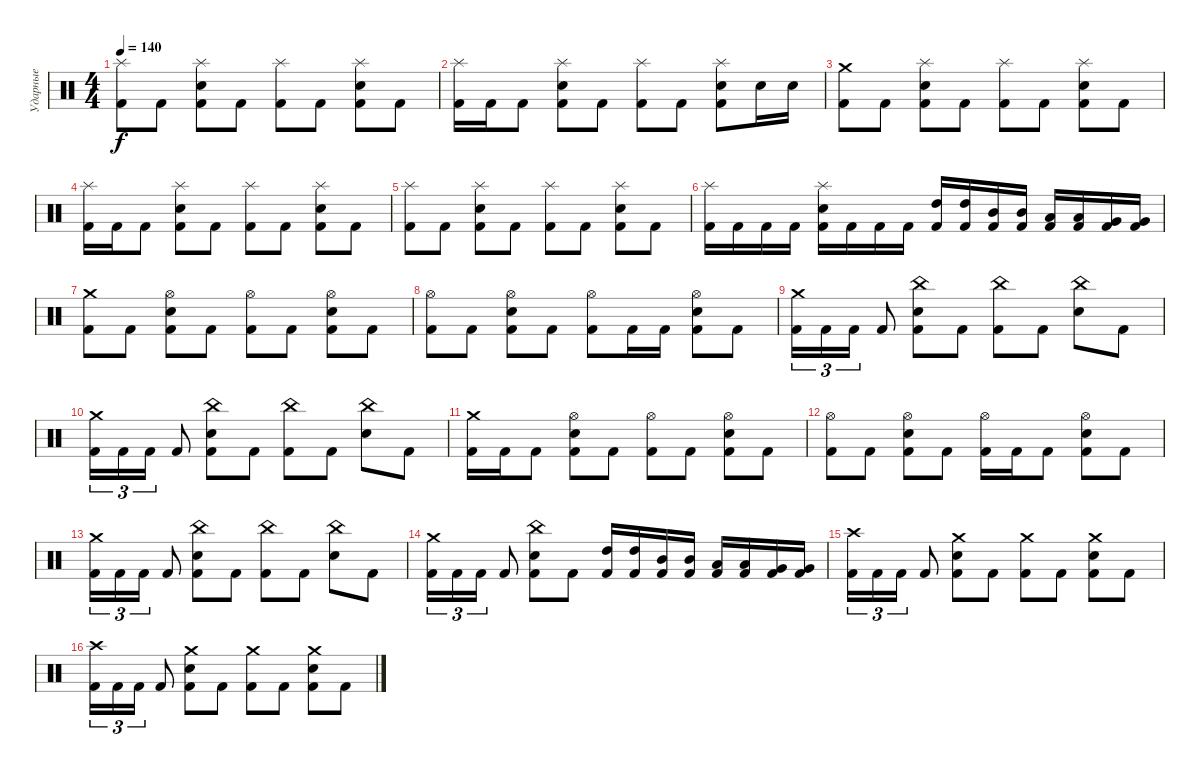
\track ("Ударные" "Ударные") {instrument percussion}
\staff {score}
\articulation defaults
\ts (4 4)
\tempo 140
\clef neutral
\ks c
("Splash (hit)" "Kick (hit) 2").8{dy f} "Kick (hit) 2".8 ("Splash (hit)" "Electric Snare (hit)" "Kick (hit) 2").8 "Kick (hit) 2".8 ("Splash (hit)" "Kick (hit) 2").8 "Kick (hit) 2".8 ("Splash (hit)" "Electric Snare (hit)" "Kick (hit) 2").8 "Kick (hit) 2".8 |
("Splash (hit)" "Kick (hit) 2").16 "Kick (hit) 2".16 "Kick (hit) 2".8 ("Splash (hit)" "Electric Snare (hit)" "Kick (hit) 2").8 "Kick (hit) 2".8 ("Splash (hit)" "Kick (hit) 2").8 "Kick (hit) 2".8 ("Splash (hit)" "Electric Snare (hit)" "Kick (hit) 2").8 "Electric Snare (hit)".16 "Electric Snare (hit)".16 |
("Crash medium (hit)" "Kick (hit) 2").8 "Kick (hit) 2".8 ("Splash (hit)" "Electric Snare (hit)" "Kick (hit) 2").8 "Kick (hit) 2".8 ("Splash (hit)" "Kick (hit) 2").8 "Kick (hit) 2".8 ("Splash (hit)" "Electric Snare (hit)" "Kick (hit) 2").8 "Kick (hit) 2".8 |
("Splash (hit)" "Kick (hit) 2").16 "Kick (hit) 2".16 "Kick (hit) 2".8 ("Splash (hit)" "Electric Snare (hit)" "Kick (hit) 2").8 "Kick (hit) 2".8 ("Splash (hit)" "Kick (hit) 2").8 "Kick (hit) 2".8 ("Splash (hit)" "Electric Snare (hit)" "Kick (hit) 2").8 "Kick (hit) 2".8 |
("Splash (hit)" "Kick (hit) 2").8 "Kick (hit) 2".8 ("Splash (hit)" "Electric Snare (hit)" "Kick (hit) 2").8 "Kick (hit) 2".8 ("Splash (hit)" "Kick (hit) 2").8 "Kick (hit) 2".8 ("Splash (hit)" "Electric Snare (hit)" "Kick (hit) 2").8 "Kick (hit) 2".8 |
("Splash (hit)" "Kick (hit) 2").16 "Kick (hit) 2".16 "Kick (hit) 2".16 "Kick (hit) 2".16 ("Splash (hit)" "Electric Snare (hit)" "Kick (hit) 2").16 "Kick (hit) 2".16 "Kick (hit) 2".16 "Kick (hit) 2".16 ("High Tom (hit)" "Kick (hit) 2").16 ("High Tom (hit)" "Kick (hit) 2").16 ("Mid Tom (hit)" "Kick (hit) 2").16 ("Mid Tom (hit)" "Kick (hit) 2").16 ("Low Tom (hit)" "Kick (hit) 2").16 ("Low Tom (hit)" "Kick (hit) 2").16 ("Very Low Tom (hit)" "Kick (hit) 2").16 ("Very Low Tom (hit)" "Kick (hit) 2").16 |
("Crash medium (hit)" "Kick (hit) 2").8 "Kick (hit) 2".8 ("Hi-Hat (open)" "Electric Snare (hit)" "Kick (hit) 2").8 "Kick (hit) 2".8 ("Hi-Hat (open)" "Kick (hit) 2").8 "Kick (hit) 2".8 ("Hi-Hat (open)" "Electric Snare (hit)" "Kick (hit) 2").8 "Kick (hit) 2".8 |
("Hi-Hat (open)" "Kick (hit) 2").8 "Kick (hit) 2".8 ("Hi-Hat (open)" "Electric Snare (hit)" "Kick (hit) 2").8 "Kick (hit) 2".8 ("Hi-Hat (open)" "Kick (hit) 2").8 "Kick (hit) 2".16 "Kick (hit) 2".16 ("Hi-Hat (open)" "Electric Snare (hit)" "Kick (hit) 2").8 "Kick (hit) 2".8 |
("Crash medium (hit)" "Kick (hit) 2").16{tu (3 2)} "Kick (hit) 2".16{tu (3 2)} "Kick (hit) 2".16{tu (3 2)} "Kick (hit) 2".8 ("China (hit)" "Electric Snare (hit)" "Kick (hit) 2").8 "Kick (hit) 2".8 ("China (hit)" "Kick (hit) 2").8 "Kick (hit) 2".8 ("China (hit)" "Electric Snare (hit)").8 "Kick (hit) 2".8 |
("Crash medium (hit)" "Kick (hit) 2").16{tu (3 2)} "Kick (hit) 2".16{tu (3 2)} "Kick (hit) 2".16{tu (3 2)} "Kick (hit) 2".8 ("China (hit)" "Electric Snare (hit)" "Kick (hit) 2").8 "Kick (hit) 2".8 ("China (hit)" "Kick (hit) 2").8 "Kick (hit) 2".8 ("China (hit)" "Electric Snare (hit)").8 "Kick (hit) 2".8 |
("Crash medium (hit)" "Kick (hit) 2").16 "Kick (hit) 2".16 "Kick (hit) 2".8 ("Hi-Hat (open)" "Electric Snare (hit)" "Kick (hit) 2").8 "Kick (hit) 2".8 ("Hi-Hat (open)" "Kick (hit) 2").8 "Kick (hit) 2".8 ("Hi-Hat (open)" "Electric Snare (hit)" "Kick (hit) 2").8 "Kick (hit) 2".8 |
("Hi-Hat (open)" "Kick (hit) 2").8 "Kick (hit) 2".8 ("Hi-Hat (open)" "Electric Snare (hit)" "Kick (hit) 2").8 "Kick (hit) 2".8 ("Hi-Hat (open)" "Kick (hit) 2").16 "Kick (hit) 2".16 "Kick (hit) 2".8 ("Hi-Hat (open)" "Electric Snare (hit)" "Kick (hit) 2").8 "Kick (hit) 2".8 |
("Crash medium (hit)" "Kick (hit) 2").16{tu (3 2)} "Kick (hit) 2".16{tu (3 2)} "Kick (hit) 2".16{tu (3 2)} "Kick (hit) 2".8 ("China (hit)" "Electric Snare (hit)" "Kick (hit) 2").8 "Kick (hit) 2".8 ("China (hit)" "Kick (hit) 2").8 "Kick (hit) 2".8 ("China (hit)" "Electric Snare (hit)").8 "Kick (hit) 2".8 |
("Crash medium (hit)" "Kick (hit) 2").16{tu (3 2)} "Kick (hit) 2".16{tu (3 2)} "Kick (hit) 2".16{tu (3 2)} "Kick (hit) 2".8 ("China (hit)" "Electric Snare (hit)" "Kick (hit) 2").8 "Kick (hit) 2".8 ("High Tom (hit)" "Kick (hit) 2").16 ("High Tom (hit)" "Kick (hit) 2").16 ("Mid Tom (hit)" "Kick (hit) 2").16 ("Mid Tom (hit)" "Kick (hit) 2").16 ("Low Tom (hit)" "Kick (hit) 2").16 ("Low Tom (hit)" "Kick (hit) 2").16 ("Very Low Tom (hit)" "Kick (hit) 2").16 ("Very Low Tom (hit)" "Kick (hit) 2").16 |
("Crash high (hit)" "Kick (hit) 2").16{tu (3 2)} "Kick (hit) 2".16{tu (3 2)} "Kick (hit) 2".16{tu (3 2)} "Kick (hit) 2".8 ("Crash medium (hit)" "Electric Snare (hit)" "Kick (hit) 2").8 "Kick (hit) 2".8 ("Crash medium (hit)" "Kick (hit) 2").8 "Kick (hit) 2".8 ("Crash medium (hit)" "Electric Snare (hit)" "Kick (hit) 2").8 "Kick (hit) 2".8 |
("Crash high (hit)" "Kick (hit) 2").16{tu (3 2)} "Kick (hit) 2".16{tu (3 2)} "Kick (hit) 2".16{tu (3 2)} "Kick (hit) 2".8 ("Crash medium (hit)" "Electric Snare (hit)" "Kick (hit) 2").8 "Kick (hit) 2".8 ("Crash medium (hit)" "Kick (hit) 2").8 "Kick (hit) 2".8 ("Crash medium (hit)" "Electric Snare (hit)" "Kick (hit) 2").8 "Kick (hit) 2".8
